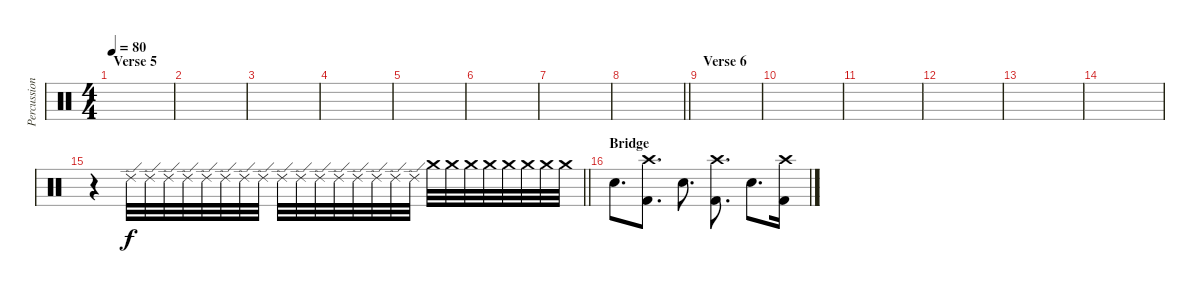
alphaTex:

\track ("Percussion" "Percussion") {instrument percussion}
\staff {score}
\articulation defaults
\ts (4 4)
\section ("" "Verse 5")
\tempo 80
\clef neutral
\ks c
|
|
|
|
|
|
|
\barLineRight lightlight
|
\section ("" "Verse 6")
|
|
|
|
|
|
\barLineRight lightlight
r.4 "Ride (edge) 2".32 "Ride (edge) 2".32 "Ride (edge) 2".32 "Ride (edge) 2".32 "Ride (edge) 2".32 "Ride (edge) 2".32 "Ride (edge) 2".32 "Ride (edge) 2".32 "Ride (edge) 2".32 "Ride (edge) 2".32 "Ride (edge) 2".32 "Ride (edge) 2".32 "Ride (edge) 2".32 "Ride (edge) 2".32 "Ride (edge) 2".32 "Ride (edge) 2".32 "Crash medium (hit)".32 "Crash medium (hit)".32 "Crash medium (hit)".32 "Crash medium (hit)".32 "Crash medium (hit)".32 "Crash medium (hit)".32 "Crash medium (hit)".32 "Crash medium (hit)".32 |
\section ("" "Bridge")
"Snare (hit) 2".8{d} ("Kick (hit) 2" "Crash high (hit)").8{d} "Snare (hit) 2".8{d} ("Kick (hit) 2" "Crash high (hit)").8{d} "Snare (hit) 2".8{d} ("Kick (hit) 2" "Crash high (hit)").16
